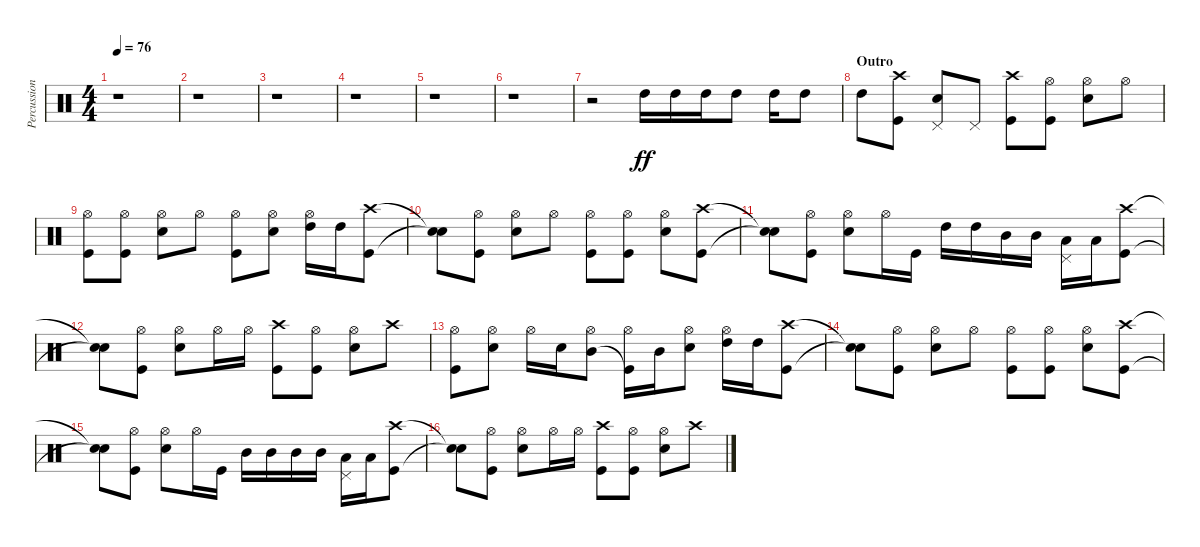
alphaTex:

\track ("Percussion" "Percussion") {instrument percussion}
\staff {score}
\articulation defaults
\ts (4 4)
\tempo 76
\clef neutral
\ks c
r.1{dy ff} |
r.1 |
r.1 |
r.1 |
r.1 |
r.1 |
r.2 "High Tom (hit)".16 "High Tom (hit)".16 "High Tom (hit)".16 "High Tom (hit)".8 "High Tom (hit)".16 "High Tom (hit)".8 |
\section ("" "Outro")
"High Tom (hit)".8 ("Crash high (hit)" "Kick (hit)").8 ("Pedal Hi-Hat (hit)" "Snare (hit) 2").8 "Pedal Hi-Hat (hit)".8 ("Crash high (hit)" "Kick (hit)").8 ("Hi-Hat (open)" "Kick (hit)").8 ("Hi-Hat (open)" "Snare (hit) 2").8 "Hi-Hat (open)".8 |
("Hi-Hat (open)" "Kick (hit)").8 ("Hi-Hat (open)" "Kick (hit)").8 ("Hi-Hat (open)" "Snare (hit) 2").8 "Hi-Hat (open)".8 ("Hi-Hat (open)" "Kick (hit)").8 ("Hi-Hat (open)" "Snare (hit) 2").8 ("Hi-Hat (open)" "High Tom (hit)").16 "High Tom (hit)".16 ("Crash high (hit)" "Kick (hit)").8 |
("Snare (hit)"{t} "Snare (hit)"{t}).8 ("Hi-Hat (open)" "Kick (hit)").8 ("Hi-Hat (open)" "Snare (hit) 2").8 "Hi-Hat (open)".8 ("Hi-Hat (open)" "Kick (hit)").8 ("Hi-Hat (open)" "Kick (hit)").8 ("Hi-Hat (open)" "Snare (hit) 2").8 ("Crash high (hit)" "Kick (hit)").8 |
("Snare (hit)"{t} "Snare (hit)"{t}).8 ("Hi-Hat (open)" "Kick (hit)").8 ("Hi-Hat (open)" "Snare (hit) 2").8 "Hi-Hat (open)".16 "Kick (hit)".16 "High Tom (hit)".16 "High Tom (hit)".16 "Mid Tom (hit)".16 "Mid Tom (hit)".16 ("Pedal Hi-Hat (hit)" "Low Tom (hit)").16 "Low Tom (hit)".16 ("Crash high (hit)" "Kick (hit)").8 |
("Snare (hit)"{t} "Snare (hit)"{t}).8 ("Hi-Hat (open)" "Kick (hit)").8 ("Hi-Hat (open)" "Snare (hit) 2").8 "Hi-Hat (open)".16 "Hi-Hat (open)".16 ("Crash high (hit)" "Kick (hit)").8 ("Hi-Hat (open)" "Kick (hit)").8 ("Hi-Hat (open)" "Snare (hit) 2").8 "Crash high (hit)".8 |
("Hi-Hat (open)" "Kick (hit)").8 ("Hi-Hat (open)" "Snare (hit) 2").8 "Hi-Hat (open)".16 "Snare (hit) 2".16 ("Hi-Hat (open)" "Mid Tom (hit)").8 ("Hi-Hat (open)" "Kick (hit)"{t}).16 "Mid Tom (hit)".16 ("Hi-Hat (open)" "Snare (hit) 2").8 ("Hi-Hat (open)" "High Tom (hit)").16 "High Tom (hit)".16 ("Crash high (hit)" "Kick (hit)").8 |
("Snare (hit)"{t} "Snare (hit)"{t}).8 ("Hi-Hat (open)" "Kick (hit)").8 ("Hi-Hat (open)" "Snare (hit) 2").8 "Hi-Hat (open)".8 ("Hi-Hat (open)" "Kick (hit)").8 ("Hi-Hat (open)" "Kick (hit)").8 ("Hi-Hat (open)" "Snare (hit) 2").8 ("Crash high (hit)" "Kick (hit)").8 |
("Snare (hit)"{t} "Snare (hit)"{t}).8 ("Hi-Hat (open)" "Kick (hit)").8 ("Hi-Hat (open)" "Snare (hit) 2").8 "Hi-Hat (open)".16 "Kick (hit)".16 "Mid Tom (hit)".16 "Mid Tom (hit)".16 "Mid Tom (hit)".16 "Mid Tom (hit)".16 ("Pedal Hi-Hat (hit)" "Low Tom (hit)").16 "Low Tom (hit)".16 ("Crash high (hit)" "Kick (hit)").8 |
("Snare (hit)"{t} "Snare (hit)"{t}).8 ("Hi-Hat (open)" "Kick (hit)").8 ("Hi-Hat (open)" "Snare (hit) 2").8 "Hi-Hat (open)".16 "Hi-Hat (open)".16 ("Crash high (hit)" "Kick (hit)").8 ("Hi-Hat (open)" "Kick (hit)").8 ("Hi-Hat (open)" "Snare (hit) 2").8 "Crash high (hit)".8
